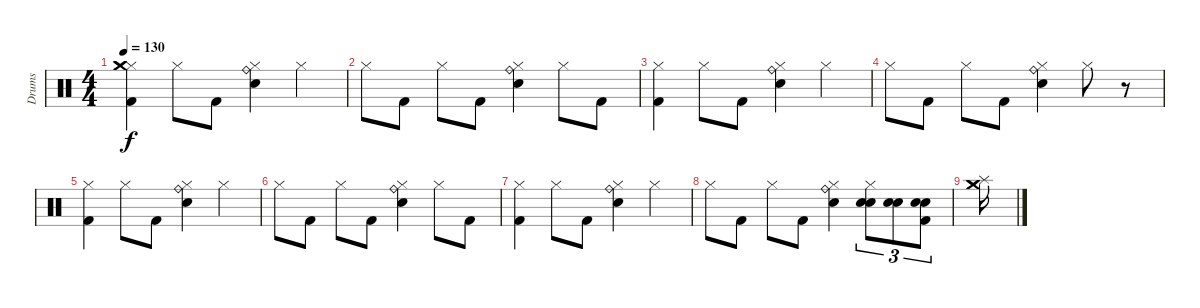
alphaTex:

\track ("Drums" "Drums") {instrument percussion}
\staff {score}
\articulation defaults
\ts (4 4)
\tempo 130
\clef neutral
\ks c
("Hi-Hat (closed)" "Kick (hit) 2" "Crash medium (hit)" "Crash medium (hit)").4{dy f} "Hi-Hat (closed)".8 "Kick (hit) 2".8 ("Hi-Hat (closed)" "Electric Snare (hit)" "Ride (bell)").4 "Hi-Hat (closed)".4 |
"Hi-Hat (closed)".8 "Kick (hit) 2".8 "Hi-Hat (closed)".8 "Kick (hit) 2".8 ("Hi-Hat (closed)" "Electric Snare (hit)" "Ride (bell)").4 "Hi-Hat (closed)".8 "Kick (hit) 2".8 |
("Hi-Hat (closed)" "Kick (hit) 2").4 "Hi-Hat (closed)".8 "Kick (hit) 2".8 ("Hi-Hat (closed)" "Electric Snare (hit)" "Ride (bell)").4 "Hi-Hat (closed)".4 |
"Hi-Hat (closed)".8 "Kick (hit) 2".8 "Hi-Hat (closed)".8 "Kick (hit) 2".8 ("Hi-Hat (closed)" "Electric Snare (hit)" "Ride (bell)").4 "Hi-Hat (closed)".8 r.8 |
("Hi-Hat (closed)" "Kick (hit) 2").4 "Hi-Hat (closed)".8 "Kick (hit) 2".8 ("Hi-Hat (closed)" "Electric Snare (hit)" "Ride (bell)").4 "Hi-Hat (closed)".4 |
"Hi-Hat (closed)".8 "Kick (hit) 2".8 "Hi-Hat (closed)".8 "Kick (hit) 2".8 ("Hi-Hat (closed)" "Electric Snare (hit)" "Ride (bell)").4 "Hi-Hat (closed)".8 "Kick (hit) 2".8 |
("Hi-Hat (closed)" "Kick (hit) 2").4 "Hi-Hat (closed)".8 "Kick (hit) 2".8 ("Hi-Hat (closed)" "Electric Snare (hit)" "Ride (bell)").4 "Hi-Hat (closed)".4 |
"Hi-Hat (closed)".8 "Kick (hit) 2".8 "Hi-Hat (closed)".8 "Kick (hit) 2".8 ("Hi-Hat (closed)" "Electric Snare (hit)" "Ride (bell)").4 ("Hi-Hat (closed)" "Electric Snare (hit)" "Electric Snare (hit)").8{tu (3 2)} ("Electric Snare (hit)" "Electric Snare (hit)").8{tu (3 2)} ("Kick (hit) 2" "Electric Snare (hit)" "Electric Snare (hit)").8{tu (3 2)} |
("Crash medium (hit)" "Splash (hit)" "Crash medium (hit)").16
